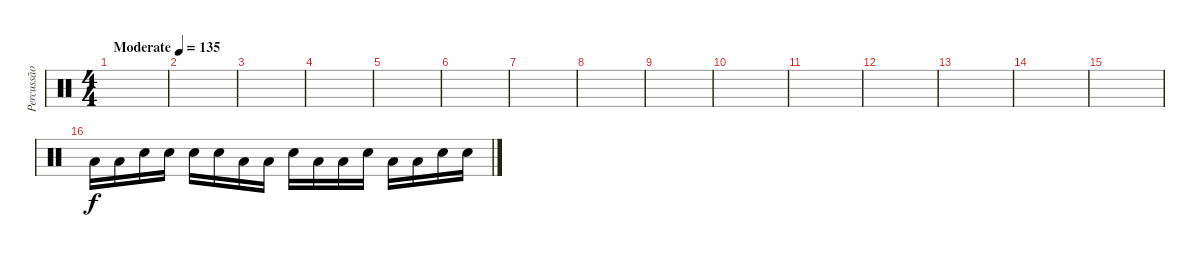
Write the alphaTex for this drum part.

\track ("Percussão" "Percussão") {instrument percussion}
\staff {score}
\articulation defaults
\ts (4 4)
\tempo (135 "Moderate")
\clef neutral
\ks c
|
|
|
|
|
|
|
|
|
|
|
|
|
|
|
"Low Floor Tom (hit)".16 "Low Floor Tom (hit)".16 "Snare (hit) 2".16 "Snare (hit) 2".16 "Snare (hit) 2".16 "Snare (hit) 2".16 "Low Floor Tom (hit)".16 "Low Floor Tom (hit)".16 "Snare (hit) 2".16 "Low Floor Tom (hit)".16 "Low Tom (hit)".16 "Metronome (bell)".16 "Low Floor Tom (hit)".16 "Low Floor Tom (hit)".16 "Snare (hit) 2".16 "Snare (hit) 2".16
